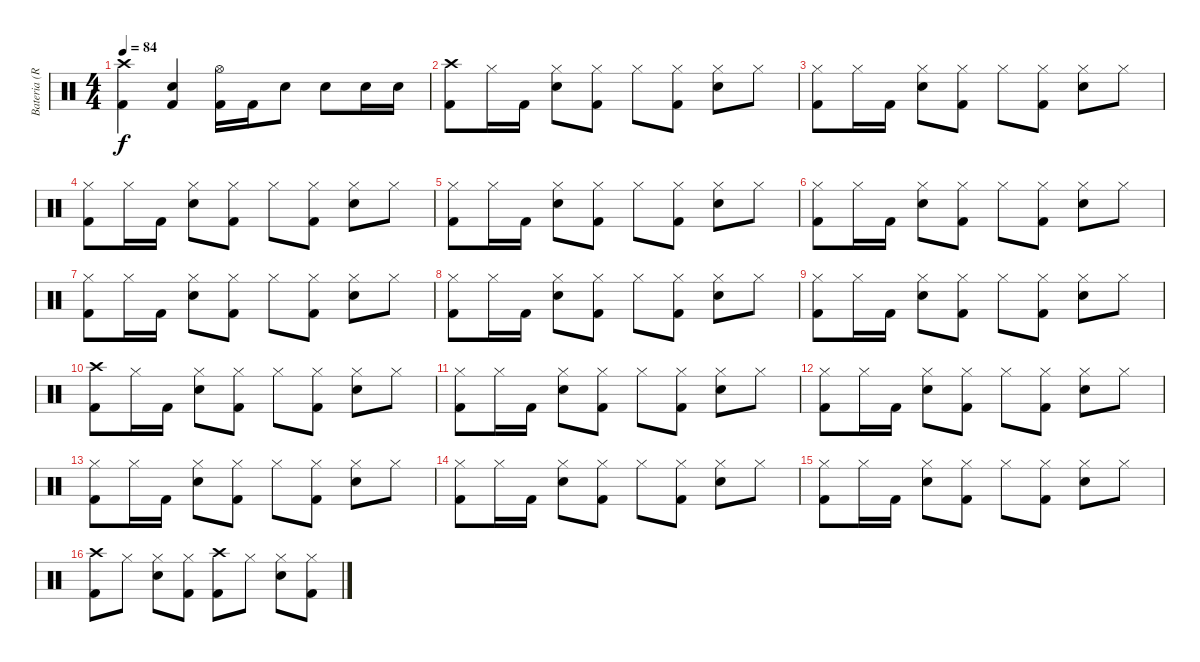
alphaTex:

\track ("Bateria (Robert Sweet)" "Bateria (R") {instrument percussion}
\staff {score}
\articulation defaults
\ts (4 4)
\tempo 84
\clef neutral
\ks c
("Crash high (hit)" "Kick (hit) 2").4{dy f} ("Electric Snare (hit)" "Kick (hit) 2").4 ("Hi-Hat (open)" "Kick (hit) 2").16 "Kick (hit) 2".16 "Electric Snare (hit)".8 "Electric Snare (hit)".8 "Electric Snare (hit)".16 "Electric Snare (hit)".16 |
("Crash high (hit)" "Kick (hit) 2").8 "Hi-Hat (closed)".16 "Kick (hit) 2".16 ("Electric Snare (hit)" "Hi-Hat (closed)").8 ("Hi-Hat (closed)" "Kick (hit) 2").8 "Hi-Hat (closed)".8 ("Hi-Hat (closed)" "Kick (hit) 2").8 ("Electric Snare (hit)" "Hi-Hat (closed)").8 "Hi-Hat (closed)".8 |
("Hi-Hat (closed)" "Kick (hit) 2").8 "Hi-Hat (closed)".16 "Kick (hit) 2".16 ("Electric Snare (hit)" "Hi-Hat (closed)").8 ("Hi-Hat (closed)" "Kick (hit) 2").8 "Hi-Hat (closed)".8 ("Hi-Hat (closed)" "Kick (hit) 2").8 ("Electric Snare (hit)" "Hi-Hat (closed)").8 "Hi-Hat (closed)".8 |
("Hi-Hat (closed)" "Kick (hit) 2").8 "Hi-Hat (closed)".16 "Kick (hit) 2".16 ("Electric Snare (hit)" "Hi-Hat (closed)").8 ("Hi-Hat (closed)" "Kick (hit) 2").8 "Hi-Hat (closed)".8 ("Hi-Hat (closed)" "Kick (hit) 2").8 ("Electric Snare (hit)" "Hi-Hat (closed)").8 "Hi-Hat (closed)".8 |
("Hi-Hat (closed)" "Kick (hit) 2").8 "Hi-Hat (closed)".16 "Kick (hit) 2".16 ("Electric Snare (hit)" "Hi-Hat (closed)").8 ("Hi-Hat (closed)" "Kick (hit) 2").8 "Hi-Hat (closed)".8 ("Hi-Hat (closed)" "Kick (hit) 2").8 ("Electric Snare (hit)" "Hi-Hat (closed)").8 "Hi-Hat (closed)".8 |
("Hi-Hat (closed)" "Kick (hit) 2").8 "Hi-Hat (closed)".16 "Kick (hit) 2".16 ("Electric Snare (hit)" "Hi-Hat (closed)").8 ("Hi-Hat (closed)" "Kick (hit) 2").8 "Hi-Hat (closed)".8 ("Hi-Hat (closed)" "Kick (hit) 2").8 ("Electric Snare (hit)" "Hi-Hat (closed)").8 "Hi-Hat (closed)".8 |
("Hi-Hat (closed)" "Kick (hit) 2").8 "Hi-Hat (closed)".16 "Kick (hit) 2".16 ("Electric Snare (hit)" "Hi-Hat (closed)").8 ("Hi-Hat (closed)" "Kick (hit) 2").8 "Hi-Hat (closed)".8 ("Hi-Hat (closed)" "Kick (hit) 2").8 ("Electric Snare (hit)" "Hi-Hat (closed)").8 "Hi-Hat (closed)".8 |
("Hi-Hat (closed)" "Kick (hit) 2").8 "Hi-Hat (closed)".16 "Kick (hit) 2".16 ("Electric Snare (hit)" "Hi-Hat (closed)").8 ("Hi-Hat (closed)" "Kick (hit) 2").8 "Hi-Hat (closed)".8 ("Hi-Hat (closed)" "Kick (hit) 2").8 ("Electric Snare (hit)" "Hi-Hat (closed)").8 "Hi-Hat (closed)".8 |
("Hi-Hat (closed)" "Kick (hit) 2").8 "Hi-Hat (closed)".16 "Kick (hit) 2".16 ("Electric Snare (hit)" "Hi-Hat (closed)").8 ("Hi-Hat (closed)" "Kick (hit) 2").8 "Hi-Hat (closed)".8 ("Hi-Hat (closed)" "Kick (hit) 2").8 ("Electric Snare (hit)" "Hi-Hat (closed)").8 "Hi-Hat (closed)".8 |
("Crash high (hit)" "Kick (hit) 2").8 "Hi-Hat (closed)".16 "Kick (hit) 2".16 ("Electric Snare (hit)" "Hi-Hat (closed)").8 ("Hi-Hat (closed)" "Kick (hit) 2").8 "Hi-Hat (closed)".8 ("Hi-Hat (closed)" "Kick (hit) 2").8 ("Electric Snare (hit)" "Hi-Hat (closed)").8 "Hi-Hat (closed)".8 |
("Hi-Hat (closed)" "Kick (hit) 2").8 "Hi-Hat (closed)".16 "Kick (hit) 2".16 ("Electric Snare (hit)" "Hi-Hat (closed)").8 ("Hi-Hat (closed)" "Kick (hit) 2").8 "Hi-Hat (closed)".8 ("Hi-Hat (closed)" "Kick (hit) 2").8 ("Electric Snare (hit)" "Hi-Hat (closed)").8 "Hi-Hat (closed)".8 |
("Hi-Hat (closed)" "Kick (hit) 2").8 "Hi-Hat (closed)".16 "Kick (hit) 2".16 ("Electric Snare (hit)" "Hi-Hat (closed)").8 ("Hi-Hat (closed)" "Kick (hit) 2").8 "Hi-Hat (closed)".8 ("Hi-Hat (closed)" "Kick (hit) 2").8 ("Electric Snare (hit)" "Hi-Hat (closed)").8 "Hi-Hat (closed)".8 |
("Hi-Hat (closed)" "Kick (hit) 2").8 "Hi-Hat (closed)".16 "Kick (hit) 2".16 ("Electric Snare (hit)" "Hi-Hat (closed)").8 ("Hi-Hat (closed)" "Kick (hit) 2").8 "Hi-Hat (closed)".8 ("Hi-Hat (closed)" "Kick (hit) 2").8 ("Electric Snare (hit)" "Hi-Hat (closed)").8 "Hi-Hat (closed)".8 |
("Hi-Hat (closed)" "Kick (hit) 2").8 "Hi-Hat (closed)".16 "Kick (hit) 2".16 ("Electric Snare (hit)" "Hi-Hat (closed)").8 ("Hi-Hat (closed)" "Kick (hit) 2").8 "Hi-Hat (closed)".8 ("Hi-Hat (closed)" "Kick (hit) 2").8 ("Electric Snare (hit)" "Hi-Hat (closed)").8 "Hi-Hat (closed)".8 |
("Hi-Hat (closed)" "Kick (hit) 2").8 "Hi-Hat (closed)".16 "Kick (hit) 2".16 ("Electric Snare (hit)" "Hi-Hat (closed)").8 ("Hi-Hat (closed)" "Kick (hit) 2").8 "Hi-Hat (closed)".8 ("Hi-Hat (closed)" "Kick (hit) 2").8 ("Electric Snare (hit)" "Hi-Hat (closed)").8 "Hi-Hat (closed)".8 |
("Crash high (hit)" "Kick (hit) 2").8 "Hi-Hat (closed)".8 ("Electric Snare (hit)" "Hi-Hat (closed)").8 ("Hi-Hat (closed)" "Kick (hit) 2").8 ("Crash high (hit)" "Kick (hit) 2").8 "Hi-Hat (closed)".8 ("Electric Snare (hit)" "Hi-Hat (closed)").8 ("Hi-Hat (closed)" "Kick (hit) 2").8
